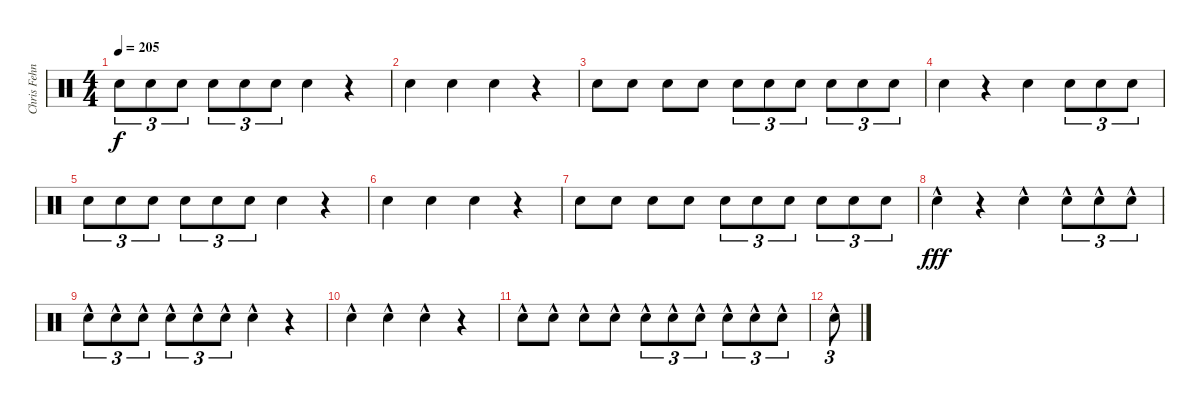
\track ("Chris Fehn" "Chris Fehn") {instrument percussion}
\staff {score}
\articulation defaults
\ts (4 4)
\tempo 205
\clef neutral
\ks c "Electric Snare (hit)".8{tu (3 2) dy f} "Electric Snare (hit)".8{tu (3 2)} "Electric Snare (hit)".8{tu (3 2)} "Electric Snare (hit)".8{tu (3 2)} "Electric Snare (hit)".8{tu (3 2)} "Electric Snare (hit)".8{tu (3 2)} "Electric Snare (hit)".4
r.4 |
"Electric Snare (hit)".4 "Electric Snare (hit)".4 "Electric Snare (hit)".4 r.4 |
"Electric Snare (hit)".8 "Electric Snare (hit)".8 "Electric Snare (hit)".8 "Electric Snare (hit)".8 "Electric Snare (hit)".8{tu (3 2)} "Electric Snare (hit)".8{tu (3 2)} "Electric Snare (hit)".8{tu (3 2)} "Electric Snare (hit)".8{tu (3 2)} "Electric Snare (hit)".8{tu (3 2)} "Electric Snare (hit)".8{tu (3 2)} |
"Electric Snare (hit)".4 r.4 "Electric Snare (hit)".4 "Electric Snare (hit)".8{tu (3 2)} "Electric Snare (hit)".8{tu (3 2)} "Electric Snare (hit)".8{tu (3 2)} |
"Electric Snare (hit)".8{tu (3 2)} "Electric Snare (hit)".8{tu (3 2)} "Electric Snare (hit)".8{tu (3 2)} "Electric Snare (hit)".8{tu (3 2)} "Electric Snare (hit)".8{tu (3 2)} "Electric Snare (hit)".8{tu (3 2)} "Electric Snare (hit)".4 r.4 |
"Electric Snare (hit)".4 "Electric Snare (hit)".4 "Electric Snare (hit)".4 r.4 |
"Electric Snare (hit)".8 "Electric Snare (hit)".8 "Electric Snare (hit)".8 "Electric Snare (hit)".8 "Electric Snare (hit)".8{tu (3 2)} "Electric Snare (hit)".8{tu (3 2)} "Electric Snare (hit)".8{tu (3 2)} "Electric Snare (hit)".8{tu (3 2)} "Electric Snare (hit)".8{tu (3 2)} "Electric Snare (hit)".8{tu (3 2)} |
"Electric Snare (hit)"{hac}.4{dy fff} r.4 "Electric Snare (hit)"{hac}.4 "Electric Snare (hit)"{hac}.8{tu (3 2)} "Electric Snare (hit)"{hac}.8{tu (3 2)} "Electric Snare (hit)"{hac}.8{tu (3 2)} |
"Electric Snare (hit)"{hac}.8{tu (3 2)} "Electric Snare (hit)"{hac}.8{tu (3 2)} "Electric Snare (hit)"{hac}.8{tu (3 2)} "Electric Snare (hit)"{hac}.8{tu (3 2)} "Electric Snare (hit)"{hac}.8{tu (3 2)} "Electric Snare (hit)"{hac}.8{tu (3 2)} "Electric Snare (hit)"{hac}.4 r.4 |
"Electric Snare (hit)"{hac}.4 "Electric Snare (hit)"{hac}.4 "Electric Snare (hit)"{hac}.4 r.4 |
"Electric Snare (hit)"{hac}.8 "Electric Snare (hit)"{hac}.8 "Electric Snare (hit)"{hac}.8 "Electric Snare (hit)"{hac}.8 "Electric Snare (hit)"{hac}.8{tu (3 2)} "Electric Snare (hit)"{hac}.8{tu (3 2)} "Electric Snare (hit)"{hac}.8{tu (3 2)} "Electric Snare (hit)"{hac}.8{tu (3 2)} "Electric Snare (hit)"{hac}.8{tu (3 2)} "Electric Snare (hit)"{hac}.8{tu (3 2)} |
"Electric Snare (hit)"{hac}.8{tu (3 2)}
